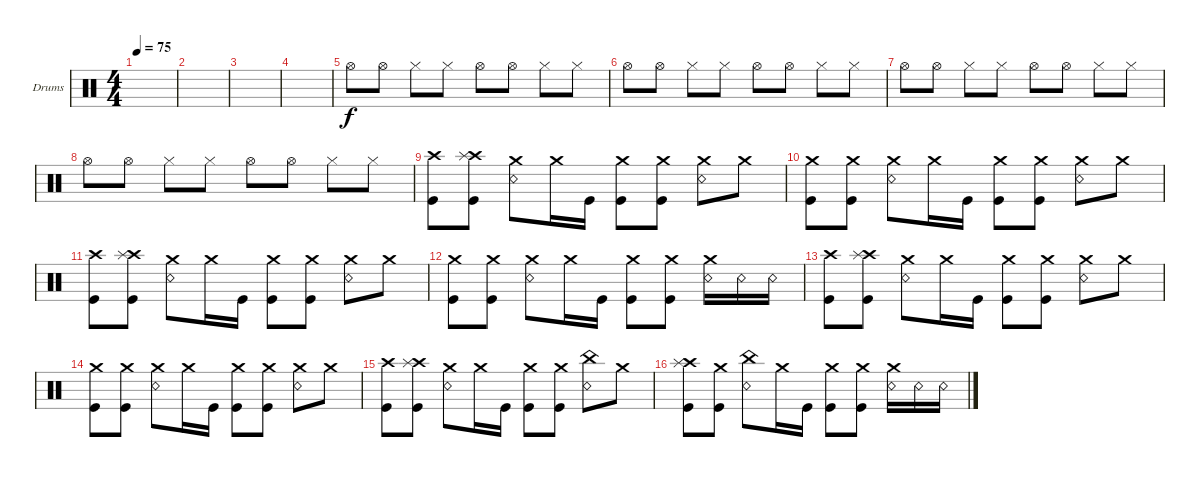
\defaultSystemsLayout 4
\bracketExtendMode groupsimilarinstruments
\firstSystemTrackNameOrientation horizontal
\otherSystemsTrackNameOrientation horizontal
\track ("Drumkit" "Drums") {instrument percussion}
\staff {score}
\articulation defaults
\ts (4 4)
\tempo 75
\clef neutral
\scale
0.472222
\ks c
|
\scale
0.263889 |
\scale
0.263889 |
\scale
0.333333 |
\scale
0.333333 "Hi-Hat (open)".8 "Hi-Hat (open)".8 "Hi-Hat (closed)".8 "Hi-Hat (closed)".8 "Hi-Hat (open)".8 "Hi-Hat (open)".8 "Hi-Hat (closed)".8 "Hi-Hat (closed)".8 |
\scale
0.333333 "Hi-Hat (open)".8 "Hi-Hat (open)".8 "Hi-Hat (closed)".8 "Hi-Hat (closed)".8 "Hi-Hat (open)".8 "Hi-Hat (open)".8 "Hi-Hat (closed)".8 "Hi-Hat (closed)".8 |
\scale
0.333333 "Hi-Hat (open)".8 "Hi-Hat (open)".8 "Hi-Hat (closed)".8 "Hi-Hat (closed)".8 "Hi-Hat (open)".8 "Hi-Hat (open)".8 "Hi-Hat (closed)".8 "Hi-Hat (closed)".8 |
\scale
0.333333 "Hi-Hat (open)".8 "Hi-Hat (open)".8 "Hi-Hat (closed)".8 "Hi-Hat (closed)".8 "Hi-Hat (open)".8 "Hi-Hat (open)".8 "Hi-Hat (closed)".8 "Hi-Hat (closed)".8 |
\scale
0.333333 ("Kick (hit)" "Crash high (hit)").8{dy f} ("Kick (hit)" "Crash high (hit)" "Splash (hit)").8 ("Crash medium (hit)" "Snare (rim shot)").8 "Crash medium (hit)".16 "Kick (hit)".16 ("Crash medium (hit)" "Kick (hit)").8 ("Crash medium (hit)" "Kick (hit)").8 ("Snare (rim shot)" "Crash medium (hit)").8 "Crash medium (hit)".8 |
\scale
0.333333 ("Kick (hit)" "Crash medium (hit)").8 ("Kick (hit)" "Crash medium (hit)").8 ("Crash medium (hit)" "Snare (rim shot)").8 "Crash medium (hit)".16 "Kick (hit)".16 ("Crash medium (hit)" "Kick (hit)").8 ("Crash medium (hit)" "Kick (hit)").8 ("Snare (rim shot)" "Crash medium (hit)").8 "Crash medium (hit)".8 |
\scale
0.333333 ("Kick (hit)" "Crash high (hit)").8 ("Kick (hit)" "Crash high (hit)" "Splash (hit)").8 ("Crash medium (hit)" "Snare (rim shot)").8 "Crash medium (hit)".16 "Kick (hit)".16 ("Crash medium (hit)" "Kick (hit)").8 ("Crash medium (hit)" "Kick (hit)").8 ("Snare (rim shot)" "Crash medium (hit)").8 "Crash medium (hit)".8 |
\scale
0.333333 ("Kick (hit)" "Crash medium (hit)").8 ("Kick (hit)" "Crash medium (hit)").8 ("Crash medium (hit)" "Snare (rim shot)").8 "Crash medium (hit)".16 "Kick (hit)".16 ("Crash medium (hit)" "Kick (hit)").8 ("Crash medium (hit)" "Kick (hit)").8 ("Snare (rim shot)" "Crash medium (hit)").16 "Snare (rim shot)".16 "Snare (rim shot)".16 |
\scale
0.333333 ("Kick (hit)" "Crash high (hit)").8 ("Kick (hit)" "Crash high (hit)" "Splash (hit)").8 ("Crash medium (hit)" "Snare (rim shot)").8 "Crash medium (hit)".16 "Kick (hit)".16 ("Crash medium (hit)" "Kick (hit)").8 ("Crash medium (hit)" "Kick (hit)").8 ("Snare (rim shot)" "Crash medium (hit)").8 "Crash medium (hit)".8 |
\scale
0.333333 ("Kick (hit)" "Crash medium (hit)").8 ("Kick (hit)" "Crash medium (hit)").8 ("Crash medium (hit)" "Snare (rim shot)").8 "Crash medium (hit)".16 "Kick (hit)".16 ("Crash medium (hit)" "Kick (hit)").8 ("Crash medium (hit)" "Kick (hit)").8 ("Snare (rim shot)" "Crash medium (hit)").8 "Crash medium (hit)".8 |
\scale
0.333333 ("Kick (hit)" "Crash high (hit)").8 ("Kick (hit)" "Crash high (hit)" "Splash (hit)").8 ("Crash medium (hit)" "Snare (rim shot)").8 "Crash medium (hit)".16 "Kick (hit)".16 ("Crash medium (hit)" "Kick (hit)").8 ("Crash medium (hit)" "Kick (hit)").8 ("Snare (rim shot)" "China (hit)").8 "Crash medium (hit)".8 |
("Kick (hit)" "Crash high (hit)" "Splash (hit)").8 ("Kick (hit)" "Crash medium (hit)").8 ("Snare (rim shot)" "China (hit)").8 "Crash medium (hit)".16 "Kick (hit)".16 ("Crash medium (hit)" "Kick (hit)").8 ("Crash medium (hit)" "Kick (hit)").8 ("Snare (rim shot)" "Crash medium (hit)").16 "Snare (rim shot)".16 "Snare (rim shot)".16
